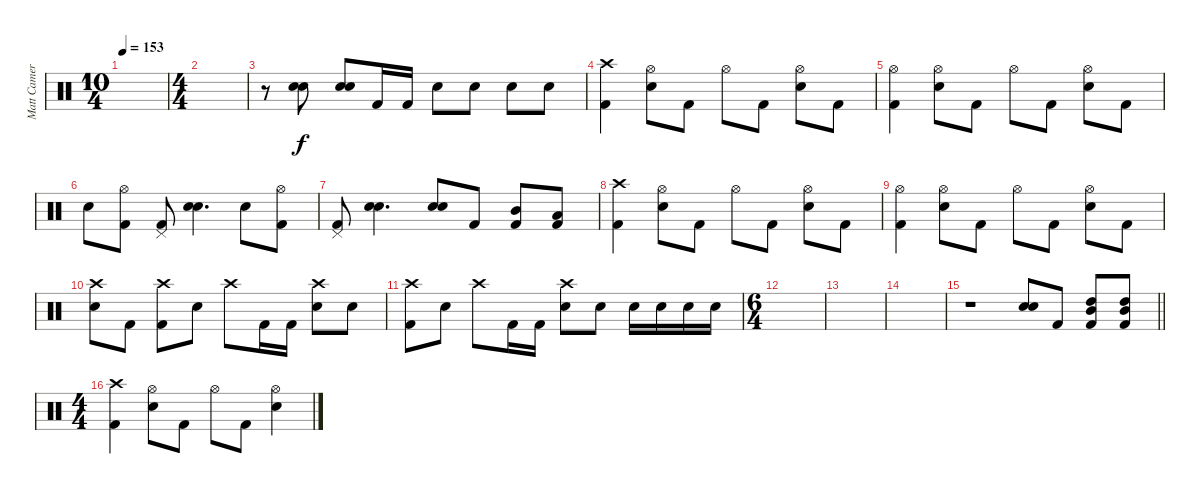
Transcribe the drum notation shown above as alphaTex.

\track ("Matt Cameron" "Matt Camer") {instrument percussion}
\staff {score}
\articulation defaults
\ts (10 4)
\tempo 153
\clef neutral
\ks c
|
\ts (4 4)
|
r.8 ("Electric Snare (hit)" "Electric Snare (hit)").8 ("Electric Snare (hit)" "Electric Snare (hit)").8 "Kick (hit) 2".16 "Kick (hit) 2".16 "Electric Snare (hit)".8 "Electric Snare (hit)".8 "Electric Snare (hit)".8 "Electric Snare (hit)".8 |
("Crash high (hit)" "Kick (hit) 2").4 ("Hi-Hat (open)" "Electric Snare (hit)").8 "Kick (hit) 2".8 "Hi-Hat (open)".8 "Kick (hit) 2".8 ("Hi-Hat (open)" "Electric Snare (hit)").8 "Kick (hit) 2".8 |
("Hi-Hat (open)" "Kick (hit) 2").4 ("Hi-Hat (open)" "Electric Snare (hit)").8 "Kick (hit) 2".8 "Hi-Hat (open)".8 "Kick (hit) 2".8 ("Hi-Hat (open)" "Electric Snare (hit)").8 "Kick (hit) 2".8 |
"Electric Snare (hit)".8 ("Hi-Hat (open)" "Kick (hit) 2").8 ("Pedal Hi-Hat (hit)" "Kick (hit) 2").8 ("Electric Snare (hit)" "Electric Snare (hit)").4{d} "Electric Snare (hit)".8 ("Hi-Hat (open)" "Kick (hit) 2").8 |
("Pedal Hi-Hat (hit)" "Kick (hit) 2").8 ("Electric Snare (hit)" "Electric Snare (hit)").4{d} ("Electric Snare (hit)" "Electric Snare (hit)").8 "Kick (hit) 2".8 ("Mid Tom (hit)" "Kick (hit) 2").8 ("Low Tom (hit)" "Kick (hit) 2").8 |
("Crash high (hit)" "Kick (hit) 2").4 ("Hi-Hat (open)" "Electric Snare (hit)").8 "Kick (hit) 2".8 "Hi-Hat (open)".8 "Kick (hit) 2".8 ("Hi-Hat (open)" "Electric Snare (hit)").8 "Kick (hit) 2".8 |
("Hi-Hat (open)" "Kick (hit) 2").4 ("Hi-Hat (open)" "Electric Snare (hit)").8 "Kick (hit) 2".8 "Hi-Hat (open)".8 "Kick (hit) 2".8 ("Hi-Hat (open)" "Electric Snare (hit)").8 "Kick (hit) 2".8 |
("Crash high (hit)" "Electric Snare (hit)").8 "Kick (hit) 2".8 ("Crash high (hit)" "Kick (hit) 2").8 "Electric Snare (hit)".8 "Crash high (hit)".8 "Kick (hit) 2".16 "Kick (hit) 2".16 ("Crash high (hit)" "Electric Snare (hit)").8 "Electric Snare (hit)".8 |
("Crash high (hit)" "Kick (hit) 2").8 "Electric Snare (hit)".8 "Crash high (hit)".8 "Kick (hit) 2".16 "Kick (hit) 2".16 ("Crash high (hit)" "Electric Snare (hit)").8 "Electric Snare (hit)".8 "Electric Snare (hit)".16 "Electric Snare (hit)".16 "Electric Snare (hit)".16 "Electric Snare (hit)".16 |
\ts (6 4)
|
|
|
\barLineRight lightlight
r.1 ("Electric Snare (hit)" "Electric Snare (hit)").8 "Kick (hit) 2".8 ("Mid Tom (hit)" "High Tom (hit)" "Kick (hit) 2").8 ("Mid Tom (hit)" "High Tom (hit)" "Kick (hit) 2").8 |
\ts (4 4)
\section ("" "")
("Crash high (hit)" "Kick (hit) 2").4 ("Hi-Hat (open)" "Electric Snare (hit)").8 "Kick (hit) 2".8 "Hi-Hat (open)".8 "Kick (hit) 2".8 ("Hi-Hat (open)" "Electric Snare (hit)").4
